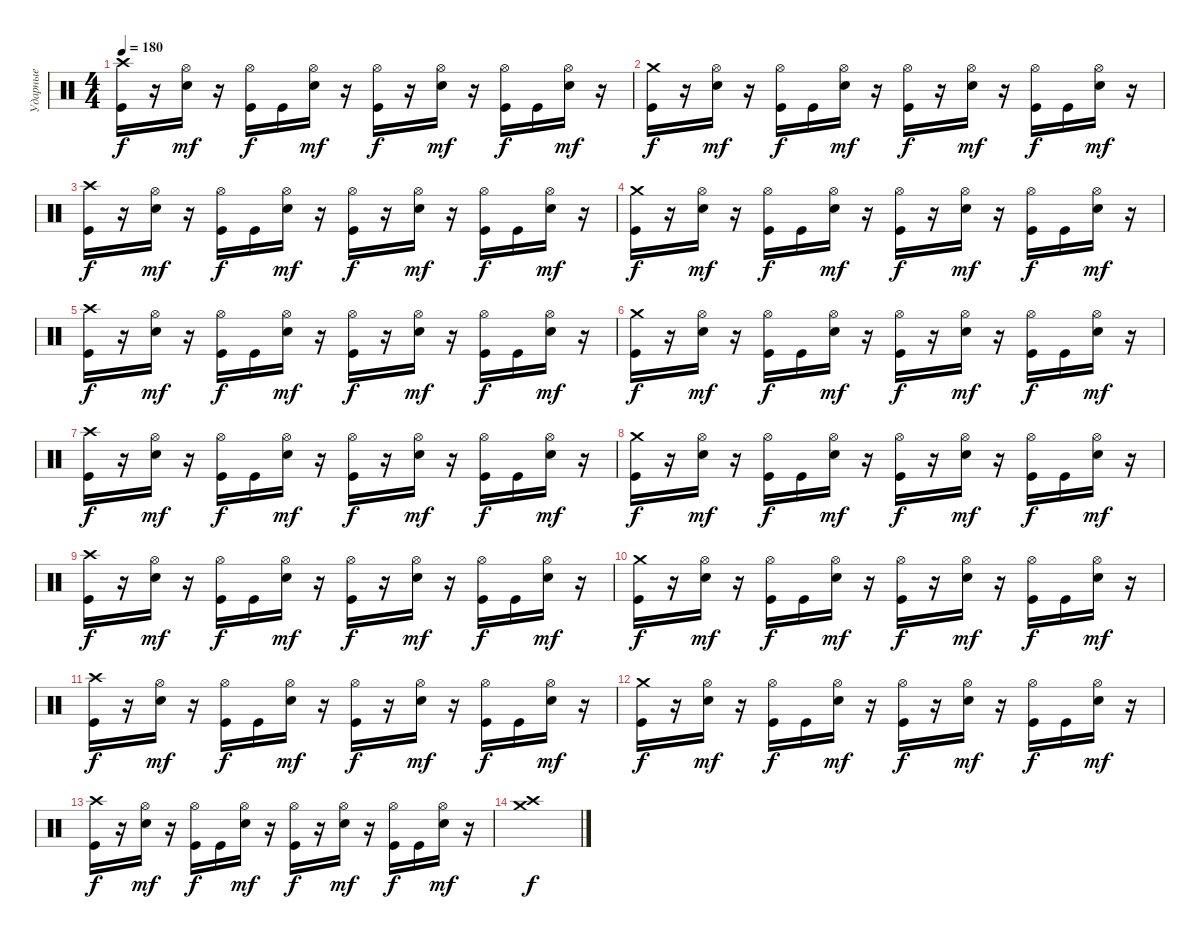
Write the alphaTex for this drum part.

\track ("Ударные" "Ударные") {instrument percussion}
\staff {score}
\articulation defaults
\ts (4 4)
\tempo 180
\clef neutral
\ks c
("Kick (hit)" "Crash high (hit)").16{dy f} r.16 ("Electric Snare (hit)" "Hi-Hat (open)").16{dy mf} r.16 ("Kick (hit)" "Hi-Hat (open)").16{dy f} "Kick (hit)".16 ("Electric Snare (hit)" "Hi-Hat (open)").16{dy mf} r.16 ("Kick (hit)" "Hi-Hat (open)").16{dy f} r.16 ("Electric Snare (hit)" "Hi-Hat (open)").16{dy mf} r.16 ("Kick (hit)" "Hi-Hat (open)").16{dy f} "Kick (hit)".16 ("Electric Snare (hit)" "Hi-Hat (open)").16{dy mf} r.16 |
("Kick (hit)" "Crash medium (hit)").16{dy f} r.16 ("Electric Snare (hit)" "Hi-Hat (open)").16{dy mf} r.16 ("Kick (hit)" "Hi-Hat (open)").16{dy f} "Kick (hit)".16 ("Electric Snare (hit)" "Hi-Hat (open)").16{dy mf} r.16 ("Kick (hit)" "Hi-Hat (open)").16{dy f} r.16 ("Electric Snare (hit)" "Hi-Hat (open)").16{dy mf} r.16 ("Kick (hit)" "Hi-Hat (open)").16{dy f} "Kick (hit)".16 ("Electric Snare (hit)" "Hi-Hat (open)").16{dy mf} r.16 |
("Kick (hit)" "Crash high (hit)").16{dy f} r.16 ("Electric Snare (hit)" "Hi-Hat (open)").16{dy mf} r.16 ("Kick (hit)" "Hi-Hat (open)").16{dy f} "Kick (hit)".16 ("Electric Snare (hit)" "Hi-Hat (open)").16{dy mf} r.16 ("Kick (hit)" "Hi-Hat (open)").16{dy f} r.16 ("Electric Snare (hit)" "Hi-Hat (open)").16{dy mf} r.16 ("Kick (hit)" "Hi-Hat (open)").16{dy f} "Kick (hit)".16 ("Electric Snare (hit)" "Hi-Hat (open)").16{dy mf} r.16 |
("Crash medium (hit)" "Kick (hit)").16{dy f} r.16 ("Electric Snare (hit)" "Hi-Hat (open)").16{dy mf} r.16 ("Kick (hit)" "Hi-Hat (open)").16{dy f} "Kick (hit)".16 ("Electric Snare (hit)" "Hi-Hat (open)").16{dy mf} r.16 ("Kick (hit)" "Hi-Hat (open)").16{dy f} r.16 ("Electric Snare (hit)" "Hi-Hat (open)").16{dy mf} r.16 ("Kick (hit)" "Hi-Hat (open)").16{dy f} "Kick (hit)".16 ("Electric Snare (hit)" "Hi-Hat (open)").16{dy mf} r.16 |
("Kick (hit)" "Crash high (hit)").16{dy f} r.16 ("Electric Snare (hit)" "Hi-Hat (open)").16{dy mf} r.16 ("Kick (hit)" "Hi-Hat (open)").16{dy f} "Kick (hit)".16 ("Electric Snare (hit)" "Hi-Hat (open)").16{dy mf} r.16 ("Kick (hit)" "Hi-Hat (open)").16{dy f} r.16 ("Electric Snare (hit)" "Hi-Hat (open)").16{dy mf} r.16 ("Kick (hit)" "Hi-Hat (open)").16{dy f} "Kick (hit)".16 ("Electric Snare (hit)" "Hi-Hat (open)").16{dy mf} r.16 |
("Kick (hit)" "Crash medium (hit)").16{dy f} r.16 ("Electric Snare (hit)" "Hi-Hat (open)").16{dy mf} r.16 ("Kick (hit)" "Hi-Hat (open)").16{dy f} "Kick (hit)".16 ("Electric Snare (hit)" "Hi-Hat (open)").16{dy mf} r.16 ("Kick (hit)" "Hi-Hat (open)").16{dy f} r.16 ("Electric Snare (hit)" "Hi-Hat (open)").16{dy mf} r.16 ("Kick (hit)" "Hi-Hat (open)").16{dy f} "Kick (hit)".16 ("Electric Snare (hit)" "Hi-Hat (open)").16{dy mf} r.16 |
("Kick (hit)" "Crash high (hit)").16{dy f} r.16 ("Electric Snare (hit)" "Hi-Hat (open)").16{dy mf} r.16 ("Kick (hit)" "Hi-Hat (open)").16{dy f} "Kick (hit)".16 ("Electric Snare (hit)" "Hi-Hat (open)").16{dy mf} r.16 ("Kick (hit)" "Hi-Hat (open)").16{dy f} r.16 ("Electric Snare (hit)" "Hi-Hat (open)").16{dy mf} r.16 ("Kick (hit)" "Hi-Hat (open)").16{dy f} "Kick (hit)".16 ("Electric Snare (hit)" "Hi-Hat (open)").16{dy mf} r.16 |
("Crash medium (hit)" "Kick (hit)").16{dy f} r.16 ("Electric Snare (hit)" "Hi-Hat (open)").16{dy mf} r.16 ("Kick (hit)" "Hi-Hat (open)").16{dy f} "Kick (hit)".16 ("Electric Snare (hit)" "Hi-Hat (open)").16{dy mf} r.16 ("Kick (hit)" "Hi-Hat (open)").16{dy f} r.16 ("Electric Snare (hit)" "Hi-Hat (open)").16{dy mf} r.16 ("Kick (hit)" "Hi-Hat (open)").16{dy f} "Kick (hit)".16 ("Electric Snare (hit)" "Hi-Hat (open)").16{dy mf} r.16 |
("Kick (hit)" "Crash high (hit)").16{dy f} r.16 ("Electric Snare (hit)" "Hi-Hat (open)").16{dy mf} r.16 ("Kick (hit)" "Hi-Hat (open)").16{dy f} "Kick (hit)".16 ("Electric Snare (hit)" "Hi-Hat (open)").16{dy mf} r.16 ("Kick (hit)" "Hi-Hat (open)").16{dy f} r.16 ("Electric Snare (hit)" "Hi-Hat (open)").16{dy mf} r.16 ("Kick (hit)" "Hi-Hat (open)").16{dy f} "Kick (hit)".16 ("Electric Snare (hit)" "Hi-Hat (open)").16{dy mf} r.16 |
("Kick (hit)" "Crash medium (hit)").16{dy f} r.16 ("Electric Snare (hit)" "Hi-Hat (open)").16{dy mf} r.16 ("Kick (hit)" "Hi-Hat (open)").16{dy f} "Kick (hit)".16 ("Electric Snare (hit)" "Hi-Hat (open)").16{dy mf} r.16 ("Kick (hit)" "Hi-Hat (open)").16{dy f} r.16 ("Electric Snare (hit)" "Hi-Hat (open)").16{dy mf} r.16 ("Kick (hit)" "Hi-Hat (open)").16{dy f} "Kick (hit)".16 ("Electric Snare (hit)" "Hi-Hat (open)").16{dy mf} r.16 |
("Kick (hit)" "Crash high (hit)").16{dy f} r.16 ("Electric Snare (hit)" "Hi-Hat (open)").16{dy mf} r.16 ("Kick (hit)" "Hi-Hat (open)").16{dy f} "Kick (hit)".16 ("Electric Snare (hit)" "Hi-Hat (open)").16{dy mf} r.16 ("Kick (hit)" "Hi-Hat (open)").16{dy f} r.16 ("Electric Snare (hit)" "Hi-Hat (open)").16{dy mf} r.16 ("Kick (hit)" "Hi-Hat (open)").16{dy f} "Kick (hit)".16 ("Electric Snare (hit)" "Hi-Hat (open)").16{dy mf} r.16 |
("Crash medium (hit)" "Kick (hit)").16{dy f} r.16 ("Electric Snare (hit)" "Hi-Hat (open)").16{dy mf} r.16 ("Kick (hit)" "Hi-Hat (open)").16{dy f} "Kick (hit)".16 ("Electric Snare (hit)" "Hi-Hat (open)").16{dy mf} r.16 ("Kick (hit)" "Hi-Hat (open)").16{dy f} r.16 ("Electric Snare (hit)" "Hi-Hat (open)").16{dy mf} r.16 ("Kick (hit)" "Hi-Hat (open)").16{dy f} "Kick (hit)".16 ("Electric Snare (hit)" "Hi-Hat (open)").16{dy mf} r.16 |
("Kick (hit)" "Crash high (hit)").16{dy f} r.16 ("Electric Snare (hit)" "Hi-Hat (open)").16{dy mf} r.16 ("Kick (hit)" "Hi-Hat (open)").16{dy f} "Kick (hit)".16 ("Electric Snare (hit)" "Hi-Hat (open)").16{dy mf} r.16 ("Kick (hit)" "Hi-Hat (open)").16{dy f} r.16 ("Electric Snare (hit)" "Hi-Hat (open)").16{dy mf} r.16 ("Kick (hit)" "Hi-Hat (open)").16{dy f} "Kick (hit)".16 ("Electric Snare (hit)" "Hi-Hat (open)").16{dy mf} r.16 |
("Crash medium (hit)" "Crash high (hit)").1{dy f}
